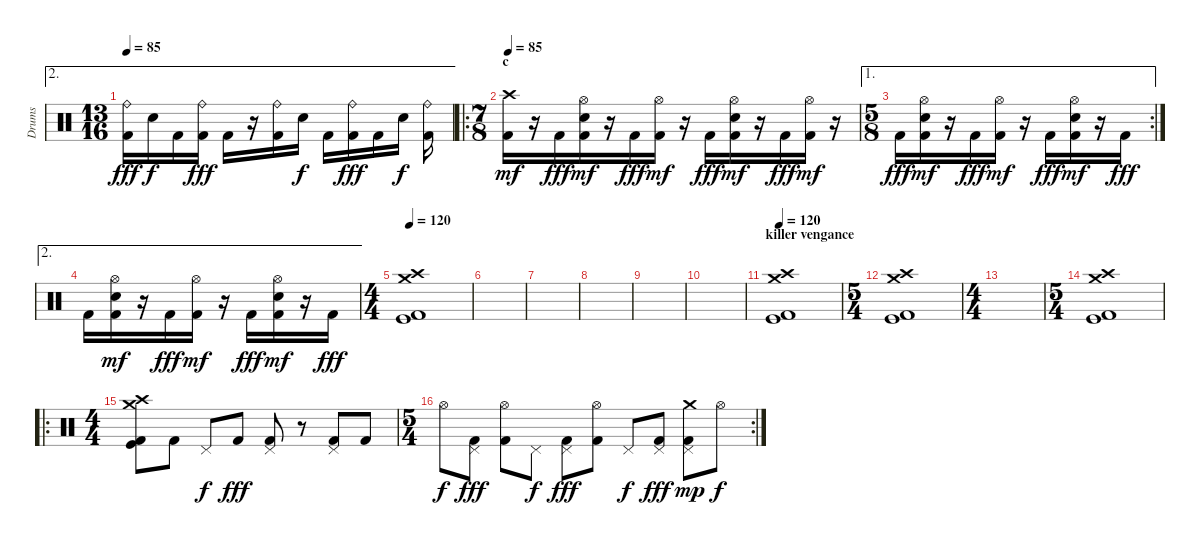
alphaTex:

\track ("Drums" "Drums") {instrument percussion}
\staff {score}
\articulation defaults
\ae 2
\ts (13 16)
\tempo 85
\clef neutral
\ks c
("Kick (hit) 2" "Ride (bell)").16{dy fff} "Electric Snare (hit)".16{dy f} "Kick (hit) 2".16 ("Kick (hit) 2" "Ride (bell)").16{dy fff} "Kick (hit) 2".16 r.16 ("Kick (hit) 2" "Ride (bell)").16 "Electric Snare (hit)".16{dy f} "Kick (hit) 2".16 ("Kick (hit) 2" "Ride (bell)").16{dy fff} "Kick (hit) 2".16 "Electric Snare (hit)".16{dy f} ("Kick (hit) 2" "Ride (bell)").16 |
\ro
\ts (7 8)
\section ("" "c")
\tempo 85
("Kick (hit) 2" "Crash high (hit)").16{dy mf} r.16 "Kick (hit) 2".16{dy fff} ("Kick (hit) 2" "Electric Snare (hit)" "Hi-Hat (open)").16{dy mf} r.16 "Kick (hit) 2".16{dy fff} ("Kick (hit) 2" "Hi-Hat (open)").16{dy mf} r.16 "Kick (hit) 2".16{dy fff} ("Kick (hit) 2" "Electric Snare (hit)" "Hi-Hat (open)").16{dy mf} r.16 "Kick (hit) 2".16{dy fff} ("Kick (hit) 2" "Hi-Hat (open)").16{dy mf} r.16 |
\ae 1
\rc 2
\ts (5 8)
"Kick (hit) 2".16{dy fff} ("Kick (hit) 2" "Electric Snare (hit)" "Hi-Hat (open)").16{dy mf} r.16 "Kick (hit) 2".16{dy fff} ("Kick (hit) 2" "Hi-Hat (open)").16{dy mf} r.16 "Kick (hit) 2".16{dy fff} ("Kick (hit) 2" "Electric Snare (hit)" "Hi-Hat (open)").16{dy mf} r.16 "Kick (hit) 2".16{dy fff} |
\ae 2 "Kick (hit) 2".16
("Kick (hit) 2" "Electric Snare (hit)" "Hi-Hat (open)").16{dy mf} r.16 "Kick (hit) 2".16{dy fff} ("Kick (hit) 2" "Hi-Hat (open)").16{dy mf} r.16 "Kick (hit) 2".16{dy fff} ("Kick (hit) 2" "Electric Snare (hit)" "Hi-Hat (open)").16{dy mf} r.16 "Kick (hit) 2".16{dy fff} |
\ts (4 4)
\tempo 120
("Kick (hit) 2" "Kick (hit)" "Crash medium (hit)" "Crash high (hit)").1 |
|
|
|
|
|
\section ("" "killer vengance")
\tempo 120
("Kick (hit) 2" "Kick (hit)" "Crash medium (hit)" "Crash high (hit)").1 |
\ts (5 4)
("Kick (hit) 2" "Kick (hit)" "Crash medium (hit)" "Crash high (hit)").1 |
\ts (4 4)
|
\ts (5 4)
("Kick (hit) 2" "Kick (hit)" "Crash medium (hit)" "Crash high (hit)").1 |
\ro
\ts (4 4)
("Kick (hit)" "Kick (hit) 2" "Crash medium (hit)" "Crash high (hit)").8 "Kick (hit) 2".8 "Pedal Hi-Hat (hit)".8{dy f} "Kick (hit) 2".8{dy fff} ("Kick (hit) 2" "Pedal Hi-Hat (hit)").8 r.8 ("Kick (hit) 2" "Pedal Hi-Hat (hit)").8 "Kick (hit) 2".8 |
\rc 2
\ts (5 4)
"Hi-Hat (open)".8{dy f} ("Pedal Hi-Hat (hit)" "Kick (hit) 2").8{dy fff} ("Hi-Hat (open)" "Kick (hit) 2").8 "Pedal Hi-Hat (hit)".8{dy f} ("Pedal Hi-Hat (hit)" "Kick (hit) 2").8{dy fff} ("Hi-Hat (open)" "Kick (hit) 2").8 "Pedal Hi-Hat (hit)".8{dy f} ("Pedal Hi-Hat (hit)" "Kick (hit) 2").8{dy fff} ("Pedal Hi-Hat (hit)" "Kick (hit) 2" "Crash medium (hit)").8{dy mp} "Hi-Hat (open)".8{dy f}
